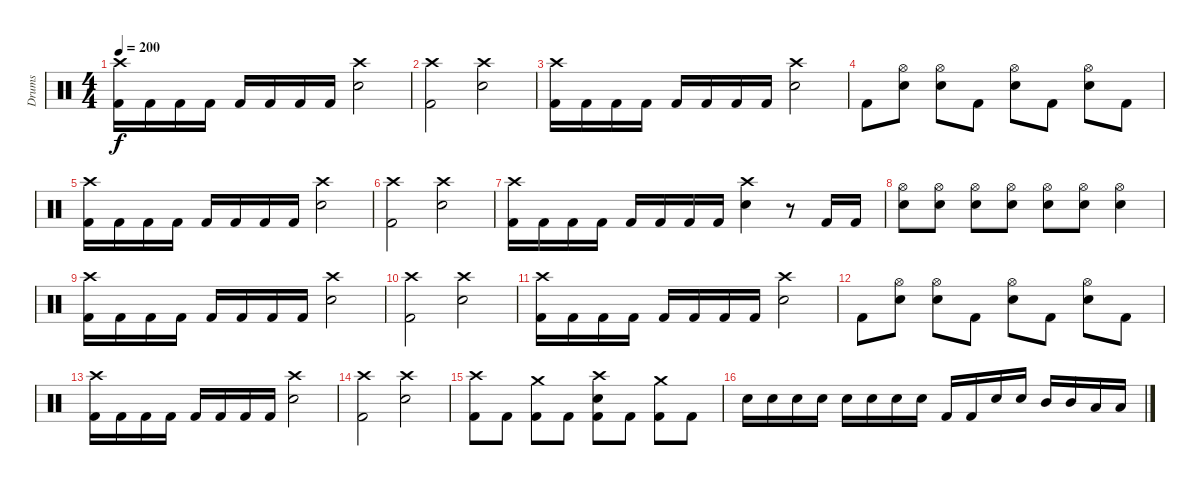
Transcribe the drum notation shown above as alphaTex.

\track ("Drums" "Drums") {instrument percussion}
\staff {score}
\articulation defaults
\ts (4 4)
\tempo 200
\clef neutral
\ks c
("Crash high (hit)" "Kick (hit) 2").16{dy f} "Kick (hit) 2".16 "Kick (hit) 2".16 "Kick (hit) 2".16 "Kick (hit) 2".16 "Kick (hit) 2".16 "Kick (hit) 2".16 "Kick (hit) 2".16 ("Crash high (hit)" "Snare (hit) 2").2 |
("Crash high (hit)" "Kick (hit) 2").2 ("Crash high (hit)" "Snare (hit) 2").2 |
("Crash high (hit)" "Kick (hit) 2").16 "Kick (hit) 2".16 "Kick (hit) 2".16 "Kick (hit) 2".16 "Kick (hit) 2".16 "Kick (hit) 2".16 "Kick (hit) 2".16 "Kick (hit) 2".16 ("Crash high (hit)" "Snare (hit) 2").2 |
"Kick (hit) 2".8 ("Snare (hit) 2" "Hi-Hat (open)").8 ("Snare (hit) 2" "Hi-Hat (open)").8 "Kick (hit) 2".8 ("Snare (hit) 2" "Hi-Hat (open)").8 "Kick (hit) 2".8 ("Snare (hit) 2" "Hi-Hat (open)").8 "Kick (hit) 2".8 |
("Crash high (hit)" "Kick (hit) 2").16 "Kick (hit) 2".16 "Kick (hit) 2".16 "Kick (hit) 2".16 "Kick (hit) 2".16 "Kick (hit) 2".16 "Kick (hit) 2".16 "Kick (hit) 2".16 ("Crash high (hit)" "Snare (hit) 2").2 |
("Crash high (hit)" "Kick (hit) 2").2 ("Crash high (hit)" "Snare (hit) 2").2 |
("Crash high (hit)" "Kick (hit) 2").16 "Kick (hit) 2".16 "Kick (hit) 2".16 "Kick (hit) 2".16 "Kick (hit) 2".16 "Kick (hit) 2".16 "Kick (hit) 2".16 "Kick (hit) 2".16 ("Crash high (hit)" "Snare (hit) 2").4 r.8 "Kick (hit) 2".16 "Kick (hit) 2".16 |
("Snare (hit) 2" "Hi-Hat (open)").8 ("Snare (hit) 2" "Hi-Hat (open)").8 ("Snare (hit) 2" "Hi-Hat (open)").8 ("Snare (hit) 2" "Hi-Hat (open)").8 ("Snare (hit) 2" "Hi-Hat (open)").8 ("Snare (hit) 2" "Hi-Hat (open)").8 ("Snare (hit) 2" "Hi-Hat (open)").4 |
("Crash high (hit)" "Kick (hit) 2").16 "Kick (hit) 2".16 "Kick (hit) 2".16 "Kick (hit) 2".16 "Kick (hit) 2".16 "Kick (hit) 2".16 "Kick (hit) 2".16 "Kick (hit) 2".16 ("Crash high (hit)" "Snare (hit) 2").2 |
("Crash high (hit)" "Kick (hit) 2").2 ("Crash high (hit)" "Snare (hit) 2").2 |
("Crash high (hit)" "Kick (hit) 2").16 "Kick (hit) 2".16 "Kick (hit) 2".16 "Kick (hit) 2".16 "Kick (hit) 2".16 "Kick (hit) 2".16 "Kick (hit) 2".16 "Kick (hit) 2".16 ("Crash high (hit)" "Snare (hit) 2").2 |
"Kick (hit) 2".8 ("Snare (hit) 2" "Hi-Hat (open)").8 ("Snare (hit) 2" "Hi-Hat (open)").8 "Kick (hit) 2".8 ("Snare (hit) 2" "Hi-Hat (open)").8 "Kick (hit) 2".8 ("Snare (hit) 2" "Hi-Hat (open)").8 "Kick (hit) 2".8 |
("Crash high (hit)" "Kick (hit) 2").16 "Kick (hit) 2".16 "Kick (hit) 2".16 "Kick (hit) 2".16 "Kick (hit) 2".16 "Kick (hit) 2".16 "Kick (hit) 2".16 "Kick (hit) 2".16 ("Crash high (hit)" "Snare (hit) 2").2 |
("Crash high (hit)" "Kick (hit) 2").2 ("Crash high (hit)" "Snare (hit) 2").2 |
("Crash high (hit)" "Kick (hit) 2").8 "Kick (hit) 2".8 ("Crash medium (hit)" "Kick (hit) 2").8 "Kick (hit) 2".8 ("Crash high (hit)" "Snare (hit) 2" "Kick (hit) 2").8 "Kick (hit) 2".8 ("Crash medium (hit)" "Kick (hit) 2").8 "Kick (hit) 2".8 |
"Snare (hit) 2".16 "Snare (hit) 2".16 "Snare (hit) 2".16 "Snare (hit) 2".16 "Snare (hit) 2".16 "Snare (hit) 2".16 "Snare (hit) 2".16 "Snare (hit) 2".16 "Kick (hit) 2".16 "Kick (hit) 2".16 "Snare (hit) 2".16 "Snare (hit) 2".16 "Mid Tom (hit)".16 "Mid Tom (hit)".16 "Low Tom (hit)".16 "Low Tom (hit)".16
